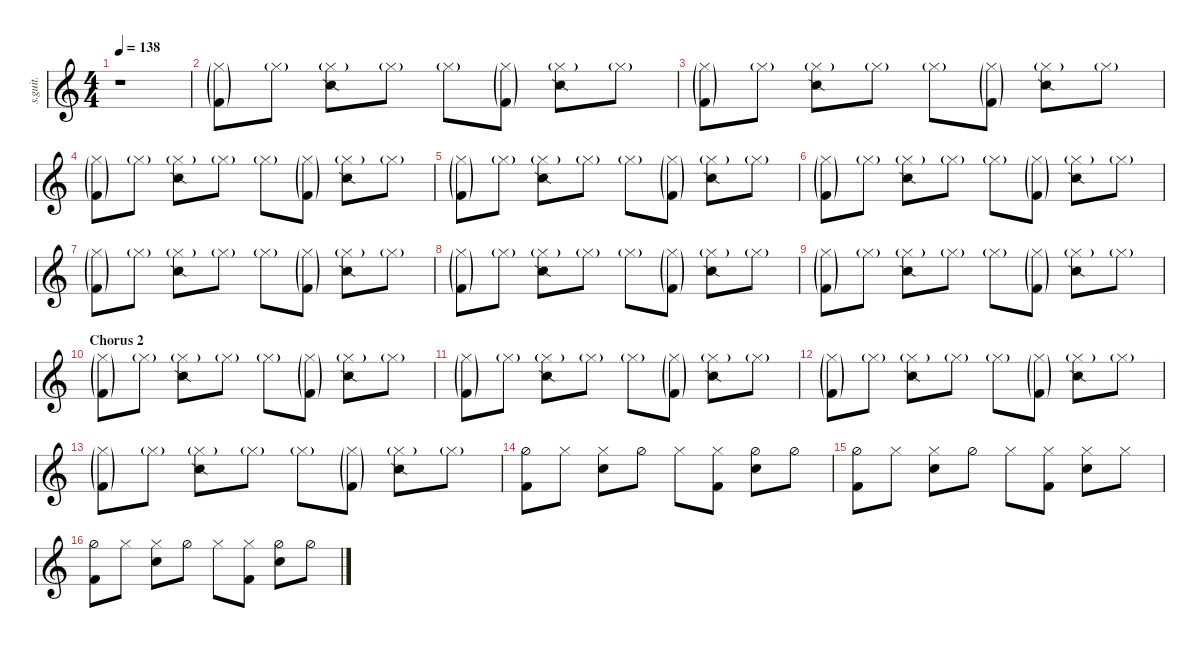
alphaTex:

\defaultSystemsLayout 4
\hideDynamics
\bracketExtendMode nobrackets
\track ("Russel Hobbs | Drums" "s.guit.") {instrument percussion}
\staff {score}
\articulation defaults
\ts (4 4)
\tempo 138
\clef g2
\ks c
r.1{dy f} |
("Hi-Hat (closed)"{g} "Kick (hit) 2"{g}).8{dy fff} "Hi-Hat (closed)"{g}.8{dy f} ("Hi-Hat (closed)"{g} "Snare (side stick) 2").8{dy ff} "Hi-Hat (closed)"{g}.8{dy f} "Hi-Hat (closed)"{g}.8 ("Hi-Hat (closed)"{g} "Kick (hit) 2"{g}).8{dy fff} ("Hi-Hat (closed)"{g} "Snare (side stick) 2").8{dy ff} "Hi-Hat (closed)"{g}.8{dy f} |
("Hi-Hat (closed)"{g} "Kick (hit) 2"{g}).8{dy fff} "Hi-Hat (closed)"{g}.8{dy f} ("Hi-Hat (closed)"{g} "Snare (side stick) 2").8{dy ff} "Hi-Hat (closed)"{g}.8{dy f} "Hi-Hat (closed)"{g}.8 ("Hi-Hat (closed)"{g} "Kick (hit) 2"{g}).8{dy fff} ("Hi-Hat (closed)"{g} "Snare (side stick) 2").8{dy ff} "Hi-Hat (closed)"{g}.8{dy f} |
("Hi-Hat (closed)"{g} "Kick (hit) 2"{g}).8{dy fff} "Hi-Hat (closed)"{g}.8{dy f} ("Hi-Hat (closed)"{g} "Snare (side stick) 2").8{dy ff} "Hi-Hat (closed)"{g}.8{dy f} "Hi-Hat (closed)"{g}.8 ("Hi-Hat (closed)"{g} "Kick (hit) 2"{g}).8{dy fff} ("Hi-Hat (closed)"{g} "Snare (side stick) 2").8{dy ff} "Hi-Hat (closed)"{g}.8{dy f} |
("Hi-Hat (closed)"{g} "Kick (hit) 2"{g}).8{dy fff} "Hi-Hat (closed)"{g}.8{dy f} ("Hi-Hat (closed)"{g} "Snare (side stick) 2").8{dy ff} "Hi-Hat (closed)"{g}.8{dy f} "Hi-Hat (closed)"{g}.8 ("Hi-Hat (closed)"{g} "Kick (hit) 2"{g}).8{dy fff} ("Hi-Hat (closed)"{g} "Snare (side stick) 2").8{dy ff} "Hi-Hat (closed)"{g}.8{dy f} |
("Hi-Hat (closed)"{g} "Kick (hit) 2"{g}).8{dy fff} "Hi-Hat (closed)"{g}.8{dy f} ("Hi-Hat (closed)"{g} "Snare (side stick) 2").8{dy ff} "Hi-Hat (closed)"{g}.8{dy f} "Hi-Hat (closed)"{g}.8 ("Hi-Hat (closed)"{g} "Kick (hit) 2"{g}).8{dy fff} ("Hi-Hat (closed)"{g} "Snare (side stick) 2").8{dy ff} "Hi-Hat (closed)"{g}.8{dy f} |
("Hi-Hat (closed)"{g} "Kick (hit) 2"{g}).8{dy fff} "Hi-Hat (closed)"{g}.8{dy f} ("Hi-Hat (closed)"{g} "Snare (side stick) 2").8{dy ff} "Hi-Hat (closed)"{g}.8{dy f} "Hi-Hat (closed)"{g}.8 ("Hi-Hat (closed)"{g} "Kick (hit) 2"{g}).8{dy fff} ("Hi-Hat (closed)"{g} "Snare (side stick) 2").8{dy ff} "Hi-Hat (closed)"{g}.8{dy f} |
("Hi-Hat (closed)"{g} "Kick (hit) 2"{g}).8{dy fff} "Hi-Hat (closed)"{g}.8{dy f} ("Hi-Hat (closed)"{g} "Snare (side stick) 2").8{dy ff} "Hi-Hat (closed)"{g}.8{dy f} "Hi-Hat (closed)"{g}.8 ("Hi-Hat (closed)"{g} "Kick (hit) 2"{g}).8{dy fff} ("Hi-Hat (closed)"{g} "Snare (side stick) 2").8{dy ff} "Hi-Hat (closed)"{g}.8{dy f} |
("Hi-Hat (closed)"{g} "Kick (hit) 2"{g}).8{dy fff} "Hi-Hat (closed)"{g}.8{dy f} ("Hi-Hat (closed)"{g} "Snare (side stick) 2").8{dy ff} "Hi-Hat (closed)"{g}.8{dy f} "Hi-Hat (closed)"{g}.8 ("Hi-Hat (closed)"{g} "Kick (hit) 2"{g}).8{dy fff} ("Hi-Hat (closed)"{g} "Snare (side stick) 2").8{dy ff} "Hi-Hat (closed)"{g}.8{dy f} |
\section ("" "Chorus 2")
("Hi-Hat (closed)"{g} "Kick (hit) 2"{g}).8{dy fff} "Hi-Hat (closed)"{g}.8{dy f} ("Hi-Hat (closed)"{g} "Snare (side stick) 2").8{dy ff} "Hi-Hat (closed)"{g}.8{dy f} "Hi-Hat (closed)"{g}.8 ("Hi-Hat (closed)"{g} "Kick (hit) 2"{g}).8{dy fff} ("Hi-Hat (closed)"{g} "Snare (side stick) 2").8{dy ff} "Hi-Hat (closed)"{g}.8{dy f} |
("Hi-Hat (closed)"{g} "Kick (hit) 2"{g}).8{dy fff} "Hi-Hat (closed)"{g}.8{dy f} ("Hi-Hat (closed)"{g} "Snare (side stick) 2").8{dy ff} "Hi-Hat (closed)"{g}.8{dy f} "Hi-Hat (closed)"{g}.8 ("Hi-Hat (closed)"{g} "Kick (hit) 2"{g}).8{dy fff} ("Hi-Hat (closed)"{g} "Snare (side stick) 2").8{dy ff} "Hi-Hat (closed)"{g}.8{dy f} |
("Hi-Hat (closed)"{g} "Kick (hit) 2"{g}).8{dy fff} "Hi-Hat (closed)"{g}.8{dy f} ("Hi-Hat (closed)"{g} "Snare (side stick) 2").8{dy ff} "Hi-Hat (closed)"{g}.8{dy f} "Hi-Hat (closed)"{g}.8 ("Hi-Hat (closed)"{g} "Kick (hit) 2"{g}).8{dy fff} ("Hi-Hat (closed)"{g} "Snare (side stick) 2").8{dy ff} "Hi-Hat (closed)"{g}.8{dy f} |
("Hi-Hat (closed)"{g} "Kick (hit) 2"{g}).8{dy fff} "Hi-Hat (closed)"{g}.8{dy f} ("Hi-Hat (closed)"{g} "Snare (side stick) 2").8{dy ff} "Hi-Hat (closed)"{g}.8{dy f} "Hi-Hat (closed)"{g}.8 ("Hi-Hat (closed)"{g} "Kick (hit) 2"{g}).8{dy fff} ("Hi-Hat (closed)"{g} "Snare (side stick) 2").8{dy ff} "Hi-Hat (closed)"{g}.8{dy f} |
("Hi-Hat (half)" "Kick (hit) 2").8 "Hi-Hat (closed)".8 ("Hi-Hat (closed)" "Snare (hit) 2").8 "Hi-Hat (half)".8 "Hi-Hat (closed)".8 ("Hi-Hat (closed)" "Kick (hit) 2").8 ("Hi-Hat (half)" "Snare (hit) 2").8 "Hi-Hat (half)".8 |
("Hi-Hat (half)" "Kick (hit) 2").8 "Hi-Hat (closed)".8 ("Hi-Hat (closed)" "Snare (hit) 2").8 "Hi-Hat (half)".8 "Hi-Hat (closed)".8 ("Hi-Hat (closed)" "Kick (hit) 2").8 ("Hi-Hat (closed)" "Snare (hit) 2").8 "Hi-Hat (closed)".8 |
("Hi-Hat (half)" "Kick (hit) 2").8 "Hi-Hat (closed)".8 ("Hi-Hat (closed)" "Snare (hit) 2").8 "Hi-Hat (half)".8 "Hi-Hat (closed)".8 ("Hi-Hat (closed)" "Kick (hit) 2").8 ("Hi-Hat (half)" "Snare (hit) 2").8 "Hi-Hat (half)".8
